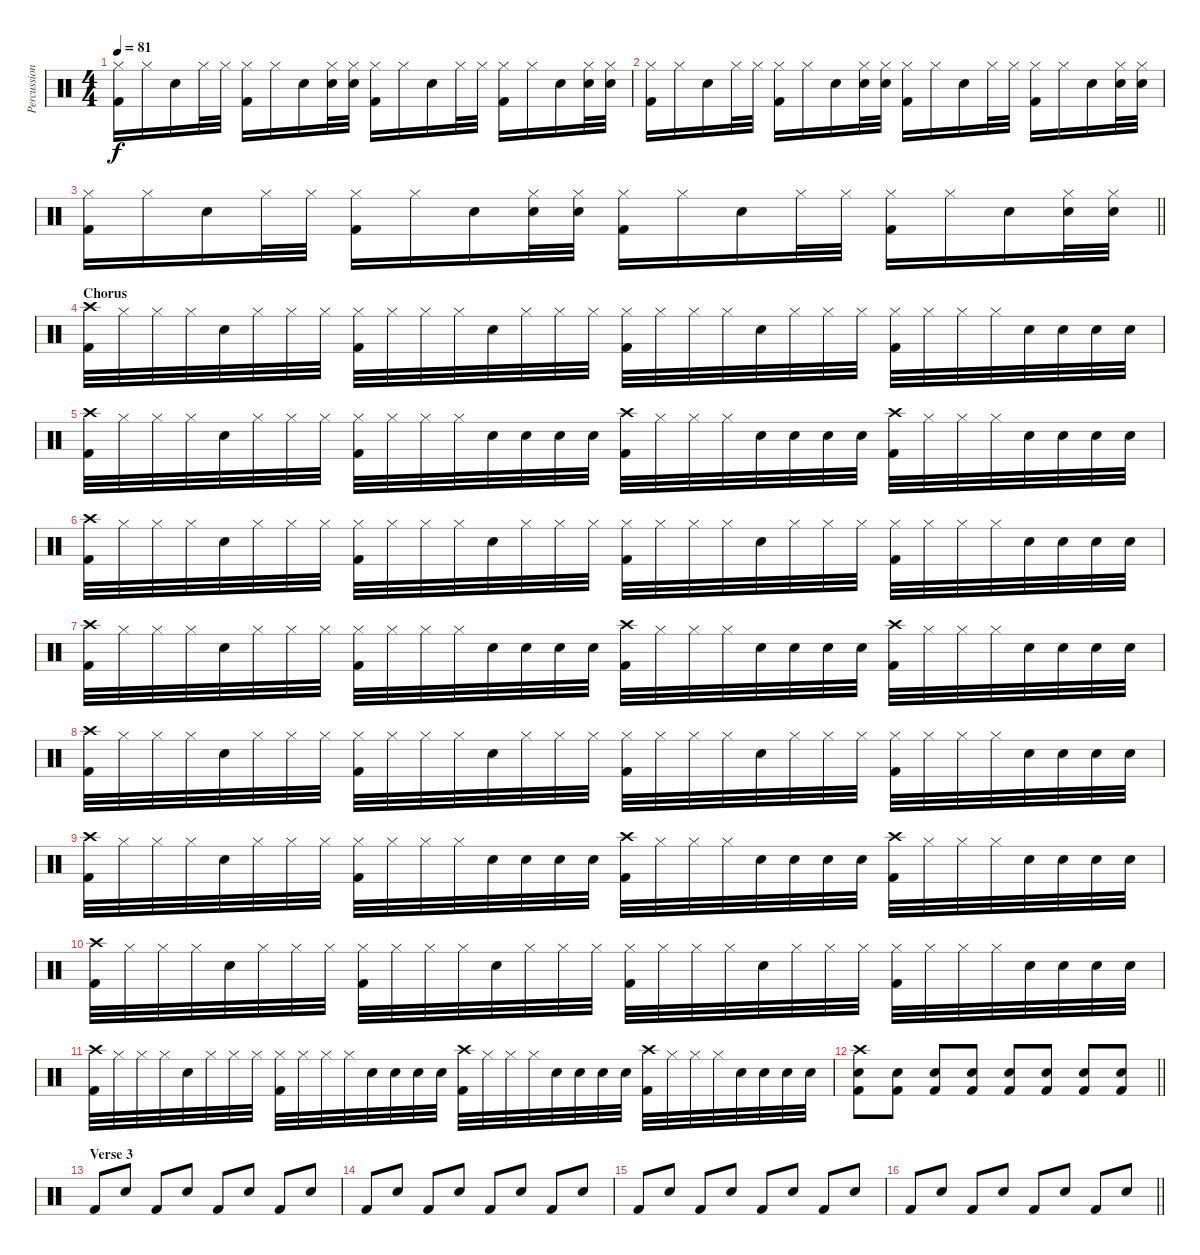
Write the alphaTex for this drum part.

\track ("Percussion" "Percussion") {instrument percussion}
\staff {score}
\articulation defaults
\ts (4 4)
\tempo 81
\clef neutral
\ks c
("Hi-Hat (closed)" "Kick (hit) 2").16{dy f} "Hi-Hat (closed)".16 "Snare (hit) 2".16 "Hi-Hat (closed)".32 "Hi-Hat (closed)".32 ("Hi-Hat (closed)" "Kick (hit) 2").16 "Hi-Hat (closed)".16 "Snare (hit) 2".16 ("Hi-Hat (closed)" "Snare (hit) 2").32 ("Hi-Hat (closed)" "Snare (hit) 2").32 ("Hi-Hat (closed)" "Kick (hit) 2").16 "Hi-Hat (closed)".16 "Snare (hit) 2".16 "Hi-Hat (closed)".32 "Hi-Hat (closed)".32 ("Hi-Hat (closed)" "Kick (hit) 2").16 "Hi-Hat (closed)".16 "Snare (hit) 2".16 ("Hi-Hat (closed)" "Snare (hit) 2").32 ("Hi-Hat (closed)" "Snare (hit) 2").32 |
("Hi-Hat (closed)" "Kick (hit) 2").16 "Hi-Hat (closed)".16 "Snare (hit) 2".16 "Hi-Hat (closed)".32 "Hi-Hat (closed)".32 ("Hi-Hat (closed)" "Kick (hit) 2").16 "Hi-Hat (closed)".16 "Snare (hit) 2".16 ("Hi-Hat (closed)" "Snare (hit) 2").32 ("Hi-Hat (closed)" "Snare (hit) 2").32 ("Hi-Hat (closed)" "Kick (hit) 2").16 "Hi-Hat (closed)".16 "Snare (hit) 2".16 "Hi-Hat (closed)".32 "Hi-Hat (closed)".32 ("Hi-Hat (closed)" "Kick (hit) 2").16 "Hi-Hat (closed)".16 "Snare (hit) 2".16 ("Hi-Hat (closed)" "Snare (hit) 2").32 ("Hi-Hat (closed)" "Snare (hit) 2").32 |
\barLineRight lightlight
("Hi-Hat (closed)" "Kick (hit) 2").16 "Hi-Hat (closed)".16 "Snare (hit) 2".16 "Hi-Hat (closed)".32 "Hi-Hat (closed)".32 ("Hi-Hat (closed)" "Kick (hit) 2").16 "Hi-Hat (closed)".16 "Snare (hit) 2".16 ("Hi-Hat (closed)" "Snare (hit) 2").32 ("Hi-Hat (closed)" "Snare (hit) 2").32 ("Hi-Hat (closed)" "Kick (hit) 2").16 "Hi-Hat (closed)".16 "Snare (hit) 2".16 "Hi-Hat (closed)".32 "Hi-Hat (closed)".32 ("Hi-Hat (closed)" "Kick (hit) 2").16 "Hi-Hat (closed)".16 "Snare (hit) 2".16 ("Hi-Hat (closed)" "Snare (hit) 2").32 ("Hi-Hat (closed)" "Snare (hit) 2").32 |
\section ("" "Chorus")
("Crash high (hit)" "Kick (hit) 2").32 "Hi-Hat (closed)".32 "Hi-Hat (closed)".32 "Hi-Hat (closed)".32 "Snare (hit) 2".32 "Hi-Hat (closed)".32 "Hi-Hat (closed)".32 "Hi-Hat (closed)".32 ("Hi-Hat (closed)" "Kick (hit) 2").32 "Hi-Hat (closed)".32 "Hi-Hat (closed)".32 "Hi-Hat (closed)".32 "Snare (hit) 2".32 "Hi-Hat (closed)".32 "Hi-Hat (closed)".32 "Hi-Hat (closed)".32 ("Hi-Hat (closed)" "Kick (hit) 2").32 "Hi-Hat (closed)".32 "Hi-Hat (closed)".32 "Hi-Hat (closed)".32 "Snare (hit) 2".32 "Hi-Hat (closed)".32 "Hi-Hat (closed)".32 "Hi-Hat (closed)".32 ("Hi-Hat (closed)" "Kick (hit) 2").32 "Hi-Hat (closed)".32 "Hi-Hat (closed)".32 "Hi-Hat (closed)".32 "Snare (hit) 2".32 "Snare (hit) 2".32 "Snare (hit) 2".32 "Snare (hit) 2".32 |
("Crash high (hit)" "Kick (hit) 2").32 "Hi-Hat (closed)".32 "Hi-Hat (closed)".32 "Hi-Hat (closed)".32 "Snare (hit) 2".32 "Hi-Hat (closed)".32 "Hi-Hat (closed)".32 "Hi-Hat (closed)".32 ("Hi-Hat (closed)" "Kick (hit) 2").32 "Hi-Hat (closed)".32 "Hi-Hat (closed)".32 "Hi-Hat (closed)".32 "Snare (hit) 2".32 "Snare (hit) 2".32 "Snare (hit) 2".32 "Snare (hit) 2".32 ("Crash high (hit)" "Kick (hit) 2").32 "Hi-Hat (closed)".32 "Hi-Hat (closed)".32 "Hi-Hat (closed)".32 "Snare (hit) 2".32 "Snare (hit) 2".32 "Snare (hit) 2".32 "Snare (hit) 2".32 ("Crash high (hit)" "Kick (hit) 2").32 "Hi-Hat (closed)".32 "Hi-Hat (closed)".32 "Hi-Hat (closed)".32 "Snare (hit) 2".32 "Snare (hit) 2".32 "Snare (hit) 2".32 "Snare (hit) 2".32 |
("Crash high (hit)" "Kick (hit) 2").32 "Hi-Hat (closed)".32 "Hi-Hat (closed)".32 "Hi-Hat (closed)".32 "Snare (hit) 2".32 "Hi-Hat (closed)".32 "Hi-Hat (closed)".32 "Hi-Hat (closed)".32 ("Hi-Hat (closed)" "Kick (hit) 2").32 "Hi-Hat (closed)".32 "Hi-Hat (closed)".32 "Hi-Hat (closed)".32 "Snare (hit) 2".32 "Hi-Hat (closed)".32 "Hi-Hat (closed)".32 "Hi-Hat (closed)".32 ("Hi-Hat (closed)" "Kick (hit) 2").32 "Hi-Hat (closed)".32 "Hi-Hat (closed)".32 "Hi-Hat (closed)".32 "Snare (hit) 2".32 "Hi-Hat (closed)".32 "Hi-Hat (closed)".32 "Hi-Hat (closed)".32 ("Hi-Hat (closed)" "Kick (hit) 2").32 "Hi-Hat (closed)".32 "Hi-Hat (closed)".32 "Hi-Hat (closed)".32 "Snare (hit) 2".32 "Snare (hit) 2".32 "Snare (hit) 2".32 "Snare (hit) 2".32 |
("Crash high (hit)" "Kick (hit) 2").32 "Hi-Hat (closed)".32 "Hi-Hat (closed)".32 "Hi-Hat (closed)".32 "Snare (hit) 2".32 "Hi-Hat (closed)".32 "Hi-Hat (closed)".32 "Hi-Hat (closed)".32 ("Hi-Hat (closed)" "Kick (hit) 2").32 "Hi-Hat (closed)".32 "Hi-Hat (closed)".32 "Hi-Hat (closed)".32 "Snare (hit) 2".32 "Snare (hit) 2".32 "Snare (hit) 2".32 "Snare (hit) 2".32 ("Crash high (hit)" "Kick (hit) 2").32 "Hi-Hat (closed)".32 "Hi-Hat (closed)".32 "Hi-Hat (closed)".32 "Snare (hit) 2".32 "Snare (hit) 2".32 "Snare (hit) 2".32 "Snare (hit) 2".32 ("Crash high (hit)" "Kick (hit) 2").32 "Hi-Hat (closed)".32 "Hi-Hat (closed)".32 "Hi-Hat (closed)".32 "Snare (hit) 2".32 "Snare (hit) 2".32 "Snare (hit) 2".32 "Snare (hit) 2".32 |
("Crash high (hit)" "Kick (hit) 2").32 "Hi-Hat (closed)".32 "Hi-Hat (closed)".32 "Hi-Hat (closed)".32 "Snare (hit) 2".32 "Hi-Hat (closed)".32 "Hi-Hat (closed)".32 "Hi-Hat (closed)".32 ("Hi-Hat (closed)" "Kick (hit) 2").32 "Hi-Hat (closed)".32 "Hi-Hat (closed)".32 "Hi-Hat (closed)".32 "Snare (hit) 2".32 "Hi-Hat (closed)".32 "Hi-Hat (closed)".32 "Hi-Hat (closed)".32 ("Hi-Hat (closed)" "Kick (hit) 2").32 "Hi-Hat (closed)".32 "Hi-Hat (closed)".32 "Hi-Hat (closed)".32 "Snare (hit) 2".32 "Hi-Hat (closed)".32 "Hi-Hat (closed)".32 "Hi-Hat (closed)".32 ("Hi-Hat (closed)" "Kick (hit) 2").32 "Hi-Hat (closed)".32 "Hi-Hat (closed)".32 "Hi-Hat (closed)".32 "Snare (hit) 2".32 "Snare (hit) 2".32 "Snare (hit) 2".32 "Snare (hit) 2".32 |
("Crash high (hit)" "Kick (hit) 2").32 "Hi-Hat (closed)".32 "Hi-Hat (closed)".32 "Hi-Hat (closed)".32 "Snare (hit) 2".32 "Hi-Hat (closed)".32 "Hi-Hat (closed)".32 "Hi-Hat (closed)".32 ("Hi-Hat (closed)" "Kick (hit) 2").32 "Hi-Hat (closed)".32 "Hi-Hat (closed)".32 "Hi-Hat (closed)".32 "Snare (hit) 2".32 "Snare (hit) 2".32 "Snare (hit) 2".32 "Snare (hit) 2".32 ("Crash high (hit)" "Kick (hit) 2").32 "Hi-Hat (closed)".32 "Hi-Hat (closed)".32 "Hi-Hat (closed)".32 "Snare (hit) 2".32 "Snare (hit) 2".32 "Snare (hit) 2".32 "Snare (hit) 2".32 ("Crash high (hit)" "Kick (hit) 2").32 "Hi-Hat (closed)".32 "Hi-Hat (closed)".32 "Hi-Hat (closed)".32 "Snare (hit) 2".32 "Snare (hit) 2".32 "Snare (hit) 2".32 "Snare (hit) 2".32 |
("Crash high (hit)" "Kick (hit) 2").32 "Hi-Hat (closed)".32 "Hi-Hat (closed)".32 "Hi-Hat (closed)".32 "Snare (hit) 2".32 "Hi-Hat (closed)".32 "Hi-Hat (closed)".32 "Hi-Hat (closed)".32 ("Hi-Hat (closed)" "Kick (hit) 2").32 "Hi-Hat (closed)".32 "Hi-Hat (closed)".32 "Hi-Hat (closed)".32 "Snare (hit) 2".32 "Hi-Hat (closed)".32 "Hi-Hat (closed)".32 "Hi-Hat (closed)".32 ("Hi-Hat (closed)" "Kick (hit) 2").32 "Hi-Hat (closed)".32 "Hi-Hat (closed)".32 "Hi-Hat (closed)".32 "Snare (hit) 2".32 "Hi-Hat (closed)".32 "Hi-Hat (closed)".32 "Hi-Hat (closed)".32 ("Hi-Hat (closed)" "Kick (hit) 2").32 "Hi-Hat (closed)".32 "Hi-Hat (closed)".32 "Hi-Hat (closed)".32 "Snare (hit) 2".32 "Snare (hit) 2".32 "Snare (hit) 2".32 "Snare (hit) 2".32 |
("Crash high (hit)" "Kick (hit) 2").32 "Hi-Hat (closed)".32 "Hi-Hat (closed)".32 "Hi-Hat (closed)".32 "Snare (hit) 2".32 "Hi-Hat (closed)".32 "Hi-Hat (closed)".32 "Hi-Hat (closed)".32 ("Hi-Hat (closed)" "Kick (hit) 2").32 "Hi-Hat (closed)".32 "Hi-Hat (closed)".32 "Hi-Hat (closed)".32 "Snare (hit) 2".32 "Snare (hit) 2".32 "Snare (hit) 2".32 "Snare (hit) 2".32 ("Crash high (hit)" "Kick (hit) 2").32 "Hi-Hat (closed)".32 "Hi-Hat (closed)".32 "Hi-Hat (closed)".32 "Snare (hit) 2".32 "Snare (hit) 2".32 "Snare (hit) 2".32 "Snare (hit) 2".32 ("Crash high (hit)" "Kick (hit) 2").32 "Hi-Hat (closed)".32 "Hi-Hat (closed)".32 "Hi-Hat (closed)".32 "Snare (hit) 2".32 "Snare (hit) 2".32 "Snare (hit) 2".32 "Snare (hit) 2".32 |
\barLineRight lightlight
("Crash high (hit)" "Snare (hit) 2" "Kick (hit) 2").8 ("Snare (hit) 2" "Kick (hit) 2").8 ("Snare (hit) 2" "Kick (hit) 2").8 ("Snare (hit) 2" "Kick (hit) 2").8 ("Snare (hit) 2" "Kick (hit) 2").8 ("Snare (hit) 2" "Kick (hit) 2").8 ("Snare (hit) 2" "Kick (hit) 2").8 ("Snare (hit) 2" "Kick (hit) 2").8 |
\section ("" "Verse 3")
"Kick (hit) 2".8 "Snare (hit) 2".8 "Kick (hit) 2".8 "Snare (hit) 2".8 "Kick (hit) 2".8 "Snare (hit) 2".8 "Kick (hit) 2".8 "Snare (hit) 2".8 |
"Kick (hit) 2".8 "Snare (hit) 2".8 "Kick (hit) 2".8 "Snare (hit) 2".8 "Kick (hit) 2".8 "Snare (hit) 2".8 "Kick (hit) 2".8 "Snare (hit) 2".8 |
"Kick (hit) 2".8 "Snare (hit) 2".8 "Kick (hit) 2".8 "Snare (hit) 2".8 "Kick (hit) 2".8 "Snare (hit) 2".8 "Kick (hit) 2".8 "Snare (hit) 2".8 |
\barLineRight lightlight "Kick (hit) 2".8 "Snare (hit) 2".8 "Kick (hit) 2".8 "Snare (hit) 2".8 "Kick (hit) 2".8 "Snare (hit) 2".8 "Kick (hit) 2".8 "Snare (hit) 2".8
